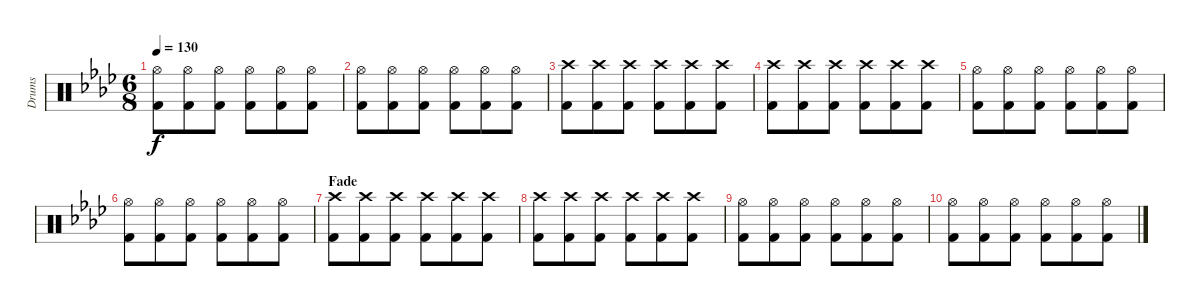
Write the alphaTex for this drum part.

\track ("Drums" "Drums") {instrument percussion}
\staff {score}
\articulation defaults
\ts (6 8)
\tempo 130
\clef neutral
\ks ab
("Hi-Hat (open)" "Kick (hit) 2").8{dy f} ("Hi-Hat (open)" "Kick (hit) 2").8 ("Hi-Hat (open)" "Kick (hit) 2").8 ("Hi-Hat (open)" "Kick (hit) 2").8 ("Hi-Hat (open)" "Kick (hit) 2").8 ("Hi-Hat (open)" "Kick (hit) 2").8 |
("Hi-Hat (open)" "Kick (hit) 2").8 ("Hi-Hat (open)" "Kick (hit) 2").8 ("Hi-Hat (open)" "Kick (hit) 2").8 ("Hi-Hat (open)" "Kick (hit) 2").8 ("Hi-Hat (open)" "Kick (hit) 2").8 ("Hi-Hat (open)" "Kick (hit) 2").8 |
("Crash high (hit)" "Kick (hit) 2").8 ("Crash high (hit)" "Kick (hit) 2").8 ("Crash high (hit)" "Kick (hit) 2").8 ("Crash high (hit)" "Kick (hit) 2").8 ("Crash high (hit)" "Kick (hit) 2").8 ("Crash high (hit)" "Kick (hit) 2").8 |
("Crash high (hit)" "Kick (hit) 2").8 ("Crash high (hit)" "Kick (hit) 2").8 ("Crash high (hit)" "Kick (hit) 2").8 ("Crash high (hit)" "Kick (hit) 2").8 ("Crash high (hit)" "Kick (hit) 2").8 ("Crash high (hit)" "Kick (hit) 2").8 |
("Hi-Hat (open)" "Kick (hit) 2").8 ("Hi-Hat (open)" "Kick (hit) 2").8 ("Hi-Hat (open)" "Kick (hit) 2").8 ("Hi-Hat (open)" "Kick (hit) 2").8 ("Hi-Hat (open)" "Kick (hit) 2").8 ("Hi-Hat (open)" "Kick (hit) 2").8 |
("Hi-Hat (open)" "Kick (hit) 2").8 ("Hi-Hat (open)" "Kick (hit) 2").8 ("Hi-Hat (open)" "Kick (hit) 2").8 ("Hi-Hat (open)" "Kick (hit) 2").8 ("Hi-Hat (open)" "Kick (hit) 2").8 ("Hi-Hat (open)" "Kick (hit) 2").8 |
\section ("" "Fade")
("Crash high (hit)" "Kick (hit) 2").8 ("Crash high (hit)" "Kick (hit) 2").8 ("Crash high (hit)" "Kick (hit) 2").8 ("Crash high (hit)" "Kick (hit) 2").8 ("Crash high (hit)" "Kick (hit) 2").8 ("Crash high (hit)" "Kick (hit) 2").8 |
("Crash high (hit)" "Kick (hit) 2").8 ("Crash high (hit)" "Kick (hit) 2").8 ("Crash high (hit)" "Kick (hit) 2").8 ("Crash high (hit)" "Kick (hit) 2").8 ("Crash high (hit)" "Kick (hit) 2").8 ("Crash high (hit)" "Kick (hit) 2").8 |
("Hi-Hat (open)" "Kick (hit) 2").8 ("Hi-Hat (open)" "Kick (hit) 2").8 ("Hi-Hat (open)" "Kick (hit) 2").8 ("Hi-Hat (open)" "Kick (hit) 2").8 ("Hi-Hat (open)" "Kick (hit) 2").8 ("Hi-Hat (open)" "Kick (hit) 2").8 |
("Hi-Hat (open)" "Kick (hit) 2").8 ("Hi-Hat (open)" "Kick (hit) 2").8 ("Hi-Hat (open)" "Kick (hit) 2").8 ("Hi-Hat (open)" "Kick (hit) 2").8 ("Hi-Hat (open)" "Kick (hit) 2").8 ("Hi-Hat (open)" "Kick (hit) 2").8
